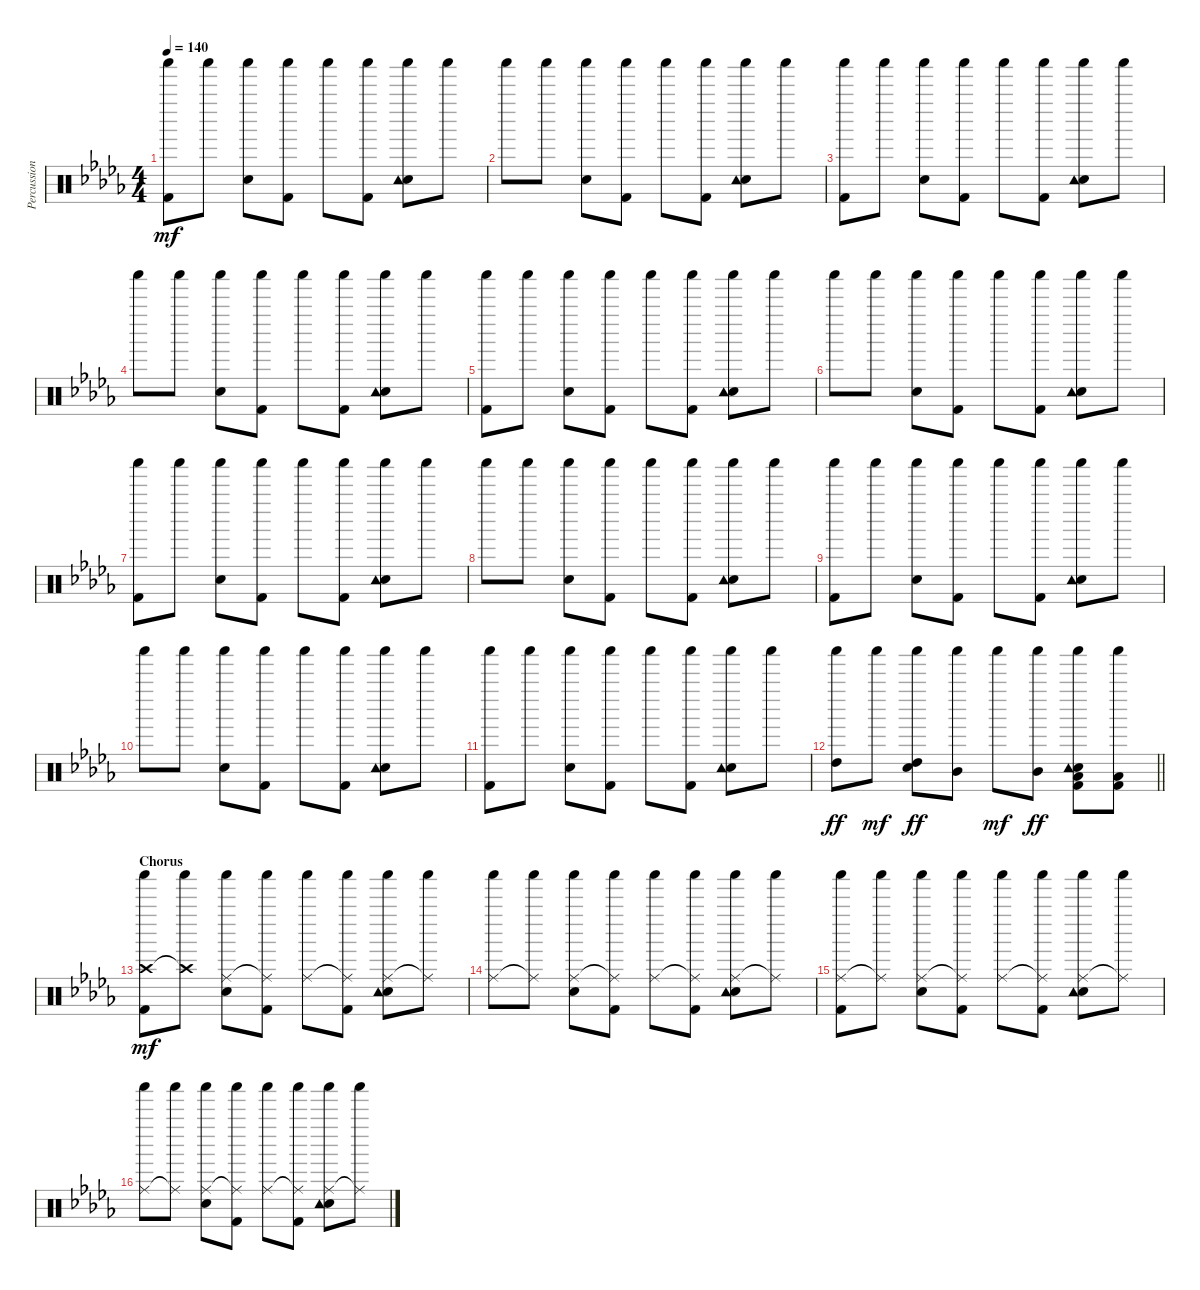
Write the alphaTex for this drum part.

\track ("Percussion" "Percussion") {instrument percussion}
\staff {score}
\articulation defaults
\ts (4 4)
\tempo 140
\clef neutral
\ks db
("Shaker (hit)" "Kick (hit) 2").8{dy mf} "Shaker (hit)".8 ("Shaker (hit)" "Snare (hit) 2").8 ("Shaker (hit)" "Kick (hit) 2").8 "Shaker (hit)".8 ("Shaker (hit)" "Kick (hit) 2").8 ("Shaker (hit)" "Snare (hit) 2" "Tambourine (hit)").8 "Shaker (hit)".8 |
"Shaker (hit)".8 "Shaker (hit)".8 ("Shaker (hit)" "Snare (hit) 2").8 ("Shaker (hit)" "Kick (hit) 2").8 "Shaker (hit)".8 ("Shaker (hit)" "Kick (hit) 2").8 ("Shaker (hit)" "Snare (hit) 2" "Tambourine (hit)").8 "Shaker (hit)".8 |
("Shaker (hit)" "Kick (hit) 2").8 "Shaker (hit)".8 ("Shaker (hit)" "Snare (hit) 2").8 ("Shaker (hit)" "Kick (hit) 2").8 "Shaker (hit)".8 ("Shaker (hit)" "Kick (hit) 2").8 ("Shaker (hit)" "Snare (hit) 2" "Tambourine (hit)").8 "Shaker (hit)".8 |
"Shaker (hit)".8 "Shaker (hit)".8 ("Shaker (hit)" "Snare (hit) 2").8 ("Shaker (hit)" "Kick (hit) 2").8 "Shaker (hit)".8 ("Shaker (hit)" "Kick (hit) 2").8 ("Shaker (hit)" "Snare (hit) 2" "Tambourine (hit)").8 "Shaker (hit)".8 |
("Shaker (hit)" "Kick (hit) 2").8 "Shaker (hit)".8 ("Shaker (hit)" "Snare (hit) 2").8 ("Shaker (hit)" "Kick (hit) 2").8 "Shaker (hit)".8 ("Shaker (hit)" "Kick (hit) 2").8 ("Shaker (hit)" "Snare (hit) 2" "Tambourine (hit)").8 "Shaker (hit)".8 |
"Shaker (hit)".8 "Shaker (hit)".8 ("Shaker (hit)" "Snare (hit) 2").8 ("Shaker (hit)" "Kick (hit) 2").8 "Shaker (hit)".8 ("Shaker (hit)" "Kick (hit) 2").8 ("Shaker (hit)" "Snare (hit) 2" "Tambourine (hit)").8 "Shaker (hit)".8 |
("Shaker (hit)" "Kick (hit) 2").8 "Shaker (hit)".8 ("Shaker (hit)" "Snare (hit) 2").8 ("Shaker (hit)" "Kick (hit) 2").8 "Shaker (hit)".8 ("Shaker (hit)" "Kick (hit) 2").8 ("Shaker (hit)" "Snare (hit) 2" "Tambourine (hit)").8 "Shaker (hit)".8 |
"Shaker (hit)".8 "Shaker (hit)".8 ("Shaker (hit)" "Snare (hit) 2").8 ("Shaker (hit)" "Kick (hit) 2").8 "Shaker (hit)".8 ("Shaker (hit)" "Kick (hit) 2").8 ("Shaker (hit)" "Snare (hit) 2" "Tambourine (hit)").8 "Shaker (hit)".8 |
("Shaker (hit)" "Kick (hit) 2").8 "Shaker (hit)".8 ("Shaker (hit)" "Snare (hit) 2").8 ("Shaker (hit)" "Kick (hit) 2").8 "Shaker (hit)".8 ("Shaker (hit)" "Kick (hit) 2").8 ("Shaker (hit)" "Snare (hit) 2" "Tambourine (hit)").8 "Shaker (hit)".8 |
"Shaker (hit)".8 "Shaker (hit)".8 ("Shaker (hit)" "Snare (hit) 2").8 ("Shaker (hit)" "Kick (hit) 2").8 "Shaker (hit)".8 ("Shaker (hit)" "Kick (hit) 2").8 ("Shaker (hit)" "Snare (hit) 2" "Tambourine (hit)").8 "Shaker (hit)".8 |
("Shaker (hit)" "Kick (hit) 2").8 "Shaker (hit)".8 ("Shaker (hit)" "Snare (hit) 2").8 ("Shaker (hit)" "Kick (hit) 2").8 "Shaker (hit)".8 ("Shaker (hit)" "Kick (hit) 2").8 ("Shaker (hit)" "Snare (hit) 2" "Tambourine (hit)").8 "Shaker (hit)".8 |
\barLineRight lightlight
("Shaker (hit)" "High Tom (hit)").8{dy ff} "Shaker (hit)".8{dy mf} ("Shaker (hit)" "Snare (hit) 2" "High Tom (hit)").8{dy ff} ("Shaker (hit)" "Mid Tom (hit)").8 "Shaker (hit)".8{dy mf} ("Shaker (hit)" "Mid Tom (hit)").8{dy ff} ("Shaker (hit)" "Snare (hit) 2" "Tambourine (hit)" "Low Floor Tom (hit)" "Kick (hit) 2").8 ("Shaker (hit)" "Low Floor Tom (hit)" "Kick (hit) 2").8 |
\section ("" "Chorus")
("Crash high (hit)" "Shaker (hit)" "Kick (hit) 2").8{dy mf} ("Crash high (hit)"{t} "Shaker (hit)").8 ("Ride (middle)" "Shaker (hit)" "Snare (hit) 2").8 ("Ride (middle)"{t} "Shaker (hit)" "Kick (hit) 2").8 ("Ride (middle)" "Shaker (hit)").8 ("Ride (middle)"{t} "Shaker (hit)" "Kick (hit) 2").8 ("Ride (middle)" "Shaker (hit)" "Snare (hit) 2" "Tambourine (hit)").8 ("Ride (middle)"{t} "Shaker (hit)").8 |
("Ride (middle)" "Shaker (hit)").8 ("Ride (middle)"{t} "Shaker (hit)").8 ("Ride (middle)" "Shaker (hit)" "Snare (hit) 2").8 ("Ride (middle)"{t} "Shaker (hit)" "Kick (hit) 2").8 ("Ride (middle)" "Shaker (hit)").8 ("Ride (middle)"{t} "Shaker (hit)" "Kick (hit) 2").8 ("Ride (middle)" "Shaker (hit)" "Snare (hit) 2" "Tambourine (hit)").8 ("Ride (middle)"{t} "Shaker (hit)").8 |
("Ride (middle)" "Shaker (hit)" "Kick (hit) 2").8 ("Ride (middle)"{t} "Shaker (hit)").8 ("Ride (middle)" "Shaker (hit)" "Snare (hit) 2").8 ("Ride (middle)"{t} "Shaker (hit)" "Kick (hit) 2").8 ("Ride (middle)" "Shaker (hit)").8 ("Ride (middle)"{t} "Shaker (hit)" "Kick (hit) 2").8 ("Ride (middle)" "Shaker (hit)" "Snare (hit) 2" "Tambourine (hit)").8 ("Ride (middle)"{t} "Shaker (hit)").8 |
("Ride (middle)" "Shaker (hit)").8 ("Ride (middle)"{t} "Shaker (hit)").8 ("Ride (middle)" "Shaker (hit)" "Snare (hit) 2").8 ("Ride (middle)"{t} "Shaker (hit)" "Kick (hit) 2").8 ("Ride (middle)" "Shaker (hit)").8 ("Ride (middle)"{t} "Shaker (hit)" "Kick (hit) 2").8 ("Ride (middle)" "Shaker (hit)" "Snare (hit) 2" "Tambourine (hit)").8 ("Ride (middle)"{t} "Shaker (hit)").8
